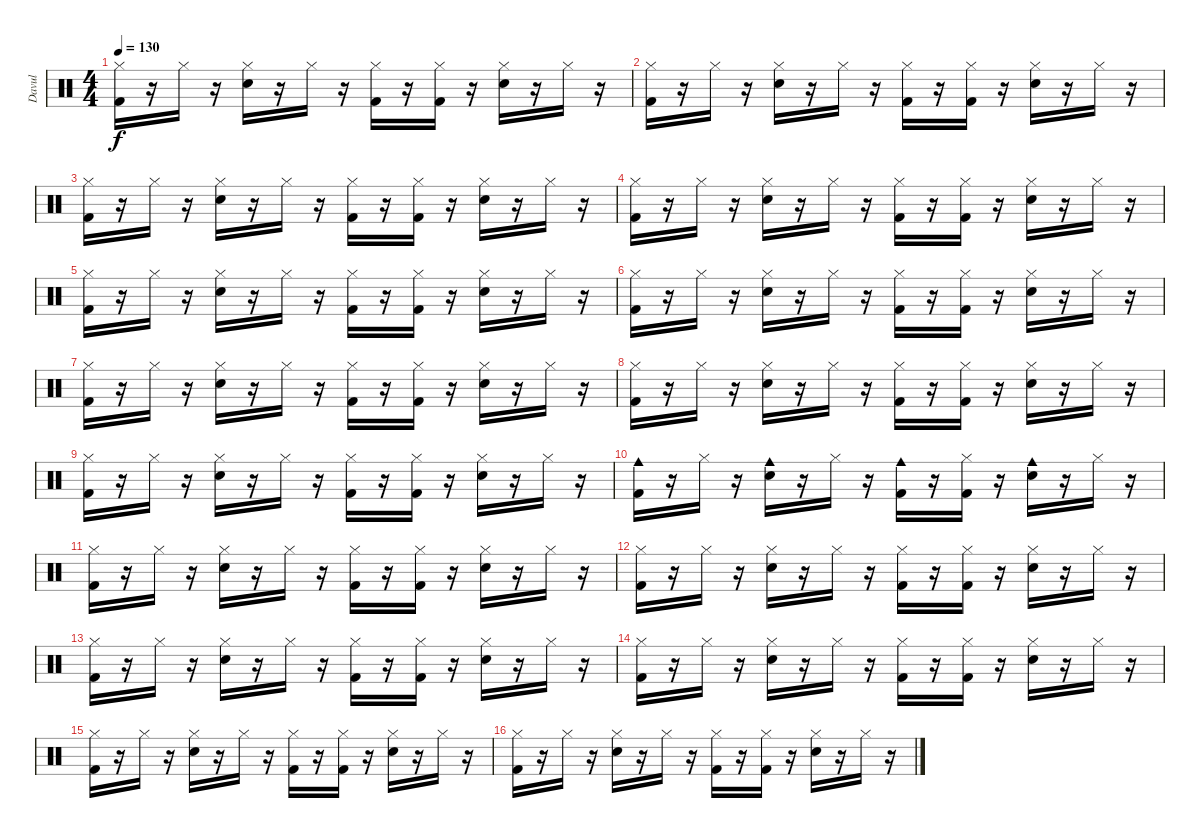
\track ("Davul" "Davul") {instrument percussion}
\staff {score}
\articulation defaults
\ts (4 4)
\tempo 130
\clef neutral
\ks c
("Hi-Hat (closed)" "Kick (hit) 2").16{dy f} r.16 "Hi-Hat (closed)".16 r.16 ("Hi-Hat (closed)" "Snare (hit) 2").16 r.16 "Hi-Hat (closed)".16 r.16 ("Hi-Hat (closed)" "Kick (hit) 2").16 r.16 ("Hi-Hat (closed)" "Kick (hit) 2").16 r.16 ("Hi-Hat (closed)" "Snare (hit) 2").16 r.16 "Hi-Hat (closed)".16 r.16 |
("Hi-Hat (closed)" "Kick (hit) 2").16 r.16 "Hi-Hat (closed)".16 r.16 ("Hi-Hat (closed)" "Snare (hit) 2").16 r.16 "Hi-Hat (closed)".16 r.16 ("Hi-Hat (closed)" "Kick (hit) 2").16 r.16 ("Hi-Hat (closed)" "Kick (hit) 2").16 r.16 ("Hi-Hat (closed)" "Snare (hit) 2").16 r.16 "Hi-Hat (closed)".16 r.16 |
("Hi-Hat (closed)" "Kick (hit) 2").16 r.16 "Hi-Hat (closed)".16 r.16 ("Hi-Hat (closed)" "Snare (hit) 2").16 r.16 "Hi-Hat (closed)".16 r.16 ("Hi-Hat (closed)" "Kick (hit) 2").16 r.16 ("Hi-Hat (closed)" "Kick (hit) 2").16 r.16 ("Hi-Hat (closed)" "Snare (hit) 2").16 r.16 "Hi-Hat (closed)".16 r.16 |
("Hi-Hat (closed)" "Kick (hit) 2").16 r.16 "Hi-Hat (closed)".16 r.16 ("Hi-Hat (closed)" "Snare (hit) 2").16 r.16 "Hi-Hat (closed)".16 r.16 ("Hi-Hat (closed)" "Kick (hit) 2").16 r.16 ("Hi-Hat (closed)" "Kick (hit) 2").16 r.16 ("Hi-Hat (closed)" "Snare (hit) 2").16 r.16 "Hi-Hat (closed)".16 r.16 |
("Hi-Hat (closed)" "Kick (hit) 2").16 r.16 "Hi-Hat (closed)".16 r.16 ("Hi-Hat (closed)" "Snare (hit) 2").16 r.16 "Hi-Hat (closed)".16 r.16 ("Hi-Hat (closed)" "Kick (hit) 2").16 r.16 ("Hi-Hat (closed)" "Kick (hit) 2").16 r.16 ("Hi-Hat (closed)" "Snare (hit) 2").16 r.16 "Hi-Hat (closed)".16 r.16 |
("Hi-Hat (closed)" "Kick (hit) 2").16 r.16 "Hi-Hat (closed)".16 r.16 ("Hi-Hat (closed)" "Snare (hit) 2").16 r.16 "Hi-Hat (closed)".16 r.16 ("Hi-Hat (closed)" "Kick (hit) 2").16 r.16 ("Hi-Hat (closed)" "Kick (hit) 2").16 r.16 ("Hi-Hat (closed)" "Snare (hit) 2").16 r.16 "Hi-Hat (closed)".16 r.16 |
("Hi-Hat (closed)" "Kick (hit) 2").16 r.16 "Hi-Hat (closed)".16 r.16 ("Hi-Hat (closed)" "Snare (hit) 2").16 r.16 "Hi-Hat (closed)".16 r.16 ("Hi-Hat (closed)" "Kick (hit) 2").16 r.16 ("Hi-Hat (closed)" "Kick (hit) 2").16 r.16 ("Hi-Hat (closed)" "Snare (hit) 2").16 r.16 "Hi-Hat (closed)".16 r.16 |
("Hi-Hat (closed)" "Kick (hit) 2").16 r.16 "Hi-Hat (closed)".16 r.16 ("Hi-Hat (closed)" "Snare (hit) 2").16 r.16 "Hi-Hat (closed)".16 r.16 ("Hi-Hat (closed)" "Kick (hit) 2").16 r.16 ("Hi-Hat (closed)" "Kick (hit) 2").16 r.16 ("Hi-Hat (closed)" "Snare (hit) 2").16 r.16 "Hi-Hat (closed)".16 r.16 |
("Hi-Hat (closed)" "Kick (hit) 2").16 r.16 "Hi-Hat (closed)".16 r.16 ("Hi-Hat (closed)" "Snare (hit) 2").16 r.16 "Hi-Hat (closed)".16 r.16 ("Hi-Hat (closed)" "Kick (hit) 2").16 r.16 ("Hi-Hat (closed)" "Kick (hit) 2").16 r.16 ("Hi-Hat (closed)" "Snare (hit) 2").16 r.16 "Hi-Hat (closed)".16 r.16 |
("Cowbell medium (hit)" "Kick (hit) 2").16 r.16 "Hi-Hat (closed)".16 r.16 ("Cowbell medium (hit)" "Snare (hit) 2").16 r.16 "Hi-Hat (closed)".16 r.16 ("Cowbell medium (hit)" "Kick (hit) 2").16 r.16 ("Hi-Hat (closed)" "Kick (hit) 2").16 r.16 ("Cowbell medium (hit)" "Snare (hit) 2").16 r.16 "Hi-Hat (closed)".16 r.16 |
("Hi-Hat (closed)" "Kick (hit) 2").16 r.16 "Hi-Hat (closed)".16 r.16 ("Hi-Hat (closed)" "Snare (hit) 2").16 r.16 "Hi-Hat (closed)".16 r.16 ("Hi-Hat (closed)" "Kick (hit) 2").16 r.16 ("Hi-Hat (closed)" "Kick (hit) 2").16 r.16 ("Hi-Hat (closed)" "Snare (hit) 2").16 r.16 "Hi-Hat (closed)".16 r.16 |
("Hi-Hat (closed)" "Kick (hit) 2").16 r.16 "Hi-Hat (closed)".16 r.16 ("Hi-Hat (closed)" "Snare (hit) 2").16 r.16 "Hi-Hat (closed)".16 r.16 ("Hi-Hat (closed)" "Kick (hit) 2").16 r.16 ("Hi-Hat (closed)" "Kick (hit) 2").16 r.16 ("Hi-Hat (closed)" "Snare (hit) 2").16 r.16 "Hi-Hat (closed)".16 r.16 |
("Hi-Hat (closed)" "Kick (hit) 2").16 r.16 "Hi-Hat (closed)".16 r.16 ("Hi-Hat (closed)" "Snare (hit) 2").16 r.16 "Hi-Hat (closed)".16 r.16 ("Hi-Hat (closed)" "Kick (hit) 2").16 r.16 ("Hi-Hat (closed)" "Kick (hit) 2").16 r.16 ("Hi-Hat (closed)" "Snare (hit) 2").16 r.16 "Hi-Hat (closed)".16 r.16 |
("Hi-Hat (closed)" "Kick (hit) 2").16 r.16 "Hi-Hat (closed)".16 r.16 ("Hi-Hat (closed)" "Snare (hit) 2").16 r.16 "Hi-Hat (closed)".16 r.16 ("Hi-Hat (closed)" "Kick (hit) 2").16 r.16 ("Hi-Hat (closed)" "Kick (hit) 2").16 r.16 ("Hi-Hat (closed)" "Snare (hit) 2").16 r.16 "Hi-Hat (closed)".16 r.16 |
("Hi-Hat (closed)" "Kick (hit) 2").16 r.16 "Hi-Hat (closed)".16 r.16 ("Hi-Hat (closed)" "Snare (hit) 2").16 r.16 "Hi-Hat (closed)".16 r.16 ("Hi-Hat (closed)" "Kick (hit) 2").16 r.16 ("Hi-Hat (closed)" "Kick (hit) 2").16 r.16 ("Hi-Hat (closed)" "Snare (hit) 2").16 r.16 "Hi-Hat (closed)".16 r.16 |
("Hi-Hat (closed)" "Kick (hit) 2").16 r.16 "Hi-Hat (closed)".16 r.16 ("Hi-Hat (closed)" "Snare (hit) 2").16 r.16 "Hi-Hat (closed)".16 r.16 ("Hi-Hat (closed)" "Kick (hit) 2").16 r.16 ("Hi-Hat (closed)" "Kick (hit) 2").16 r.16 ("Hi-Hat (closed)" "Snare (hit) 2").16 r.16 "Hi-Hat (closed)".16 r.16
